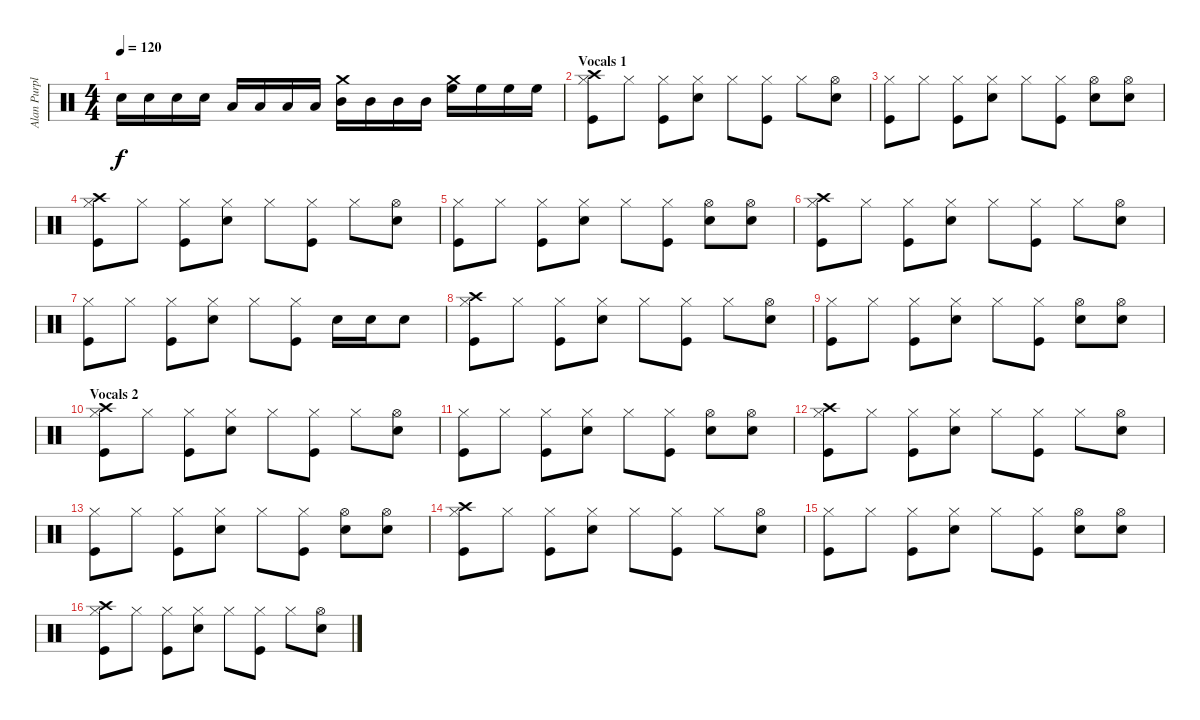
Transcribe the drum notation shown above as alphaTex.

\track ("Alan Purple" "Alan Purpl") {instrument percussion}
\staff {score}
\articulation defaults
\ts (4 4)
\tempo 120
\clef neutral
\ks c "Electric Snare (hit)".16{dy f} "Electric Snare (hit)".16 "Electric Snare (hit)".16 "Electric Snare (hit)".16 "Low Tom (hit)".16 "Low Tom (hit)".16 "Low Tom (hit)".16 "Low Tom (hit)".16
("Crash medium (hit)" "Mid Tom (hit)").16 "Mid Tom (hit)".16 "Mid Tom (hit)".16 "Mid Tom (hit)".16 ("Crash medium (hit)" "High Floor Tom (hit)").16 "High Floor Tom (hit)".16 "High Floor Tom (hit)".16 "High Floor Tom (hit)".16 |
\section ("" "Vocals 1")
("Crash high (hit)" "Hi-Hat (closed)" "Kick (hit)").8 "Hi-Hat (closed)".8 ("Hi-Hat (closed)" "Kick (hit)").8 ("Hi-Hat (closed)" "Snare (hit) 2").8 "Hi-Hat (closed)".8 ("Hi-Hat (closed)" "Kick (hit)").8 "Hi-Hat (closed)".8 ("Hi-Hat (open)" "Snare (hit) 2").8 |
("Hi-Hat (closed)" "Kick (hit)").8 "Hi-Hat (closed)".8 ("Hi-Hat (closed)" "Kick (hit)").8 ("Hi-Hat (closed)" "Snare (hit) 2").8 "Hi-Hat (closed)".8 ("Hi-Hat (closed)" "Kick (hit)").8 ("Hi-Hat (open)" "Electric Snare (hit)").8 ("Hi-Hat (open)" "Snare (hit) 2").8 |
("Crash high (hit)" "Hi-Hat (closed)" "Kick (hit)").8 "Hi-Hat (closed)".8 ("Hi-Hat (closed)" "Kick (hit)").8 ("Hi-Hat (closed)" "Snare (hit) 2").8 "Hi-Hat (closed)".8 ("Hi-Hat (closed)" "Kick (hit)").8 "Hi-Hat (closed)".8 ("Hi-Hat (open)" "Snare (hit) 2").8 |
("Hi-Hat (closed)" "Kick (hit)").8 "Hi-Hat (closed)".8 ("Hi-Hat (closed)" "Kick (hit)").8 ("Hi-Hat (closed)" "Snare (hit) 2").8 "Hi-Hat (closed)".8 ("Hi-Hat (closed)" "Kick (hit)").8 ("Hi-Hat (open)" "Electric Snare (hit)").8 ("Hi-Hat (open)" "Snare (hit) 2").8 |
("Crash high (hit)" "Hi-Hat (closed)" "Kick (hit)").8 "Hi-Hat (closed)".8 ("Hi-Hat (closed)" "Kick (hit)").8 ("Hi-Hat (closed)" "Snare (hit) 2").8 "Hi-Hat (closed)".8 ("Hi-Hat (closed)" "Kick (hit)").8 "Hi-Hat (closed)".8 ("Hi-Hat (open)" "Snare (hit) 2").8 |
("Hi-Hat (closed)" "Kick (hit)").8 "Hi-Hat (closed)".8 ("Hi-Hat (closed)" "Kick (hit)").8 ("Hi-Hat (closed)" "Snare (hit) 2").8 "Hi-Hat (closed)".8 ("Hi-Hat (closed)" "Kick (hit)").8 "Electric Snare (hit)".16 "Electric Snare (hit)".16 "Electric Snare (hit)".8 |
("Crash high (hit)" "Hi-Hat (closed)" "Kick (hit)").8 "Hi-Hat (closed)".8 ("Hi-Hat (closed)" "Kick (hit)").8 ("Hi-Hat (closed)" "Snare (hit) 2").8 "Hi-Hat (closed)".8 ("Hi-Hat (closed)" "Kick (hit)").8 "Hi-Hat (closed)".8 ("Hi-Hat (open)" "Snare (hit) 2").8 |
("Hi-Hat (closed)" "Kick (hit)").8 "Hi-Hat (closed)".8 ("Hi-Hat (closed)" "Kick (hit)").8 ("Hi-Hat (closed)" "Snare (hit) 2").8 "Hi-Hat (closed)".8 ("Hi-Hat (closed)" "Kick (hit)").8 ("Hi-Hat (open)" "Electric Snare (hit)").8 ("Hi-Hat (open)" "Snare (hit) 2").8 |
\section ("" "Vocals 2")
("Crash high (hit)" "Hi-Hat (closed)" "Kick (hit)").8 "Hi-Hat (closed)".8 ("Hi-Hat (closed)" "Kick (hit)").8 ("Hi-Hat (closed)" "Snare (hit) 2").8 "Hi-Hat (closed)".8 ("Hi-Hat (closed)" "Kick (hit)").8 "Hi-Hat (closed)".8 ("Hi-Hat (open)" "Snare (hit) 2").8 |
("Hi-Hat (closed)" "Kick (hit)").8 "Hi-Hat (closed)".8 ("Hi-Hat (closed)" "Kick (hit)").8 ("Hi-Hat (closed)" "Snare (hit) 2").8 "Hi-Hat (closed)".8 ("Hi-Hat (closed)" "Kick (hit)").8 ("Hi-Hat (open)" "Electric Snare (hit)").8 ("Hi-Hat (open)" "Snare (hit) 2").8 |
("Crash high (hit)" "Hi-Hat (closed)" "Kick (hit)").8 "Hi-Hat (closed)".8 ("Hi-Hat (closed)" "Kick (hit)").8 ("Hi-Hat (closed)" "Snare (hit) 2").8 "Hi-Hat (closed)".8 ("Hi-Hat (closed)" "Kick (hit)").8 "Hi-Hat (closed)".8 ("Hi-Hat (open)" "Snare (hit) 2").8 |
("Hi-Hat (closed)" "Kick (hit)").8 "Hi-Hat (closed)".8 ("Hi-Hat (closed)" "Kick (hit)").8 ("Hi-Hat (closed)" "Snare (hit) 2").8 "Hi-Hat (closed)".8 ("Hi-Hat (closed)" "Kick (hit)").8 ("Hi-Hat (open)" "Electric Snare (hit)").8 ("Hi-Hat (open)" "Snare (hit) 2").8 |
("Crash high (hit)" "Hi-Hat (closed)" "Kick (hit)").8 "Hi-Hat (closed)".8 ("Hi-Hat (closed)" "Kick (hit)").8 ("Hi-Hat (closed)" "Snare (hit) 2").8 "Hi-Hat (closed)".8 ("Hi-Hat (closed)" "Kick (hit)").8 "Hi-Hat (closed)".8 ("Hi-Hat (open)" "Snare (hit) 2").8 |
("Hi-Hat (closed)" "Kick (hit)").8 "Hi-Hat (closed)".8 ("Hi-Hat (closed)" "Kick (hit)").8 ("Hi-Hat (closed)" "Snare (hit) 2").8 "Hi-Hat (closed)".8 ("Hi-Hat (closed)" "Kick (hit)").8 ("Hi-Hat (open)" "Electric Snare (hit)").8 ("Hi-Hat (open)" "Snare (hit) 2").8 |
("Crash high (hit)" "Hi-Hat (closed)" "Kick (hit)").8 "Hi-Hat (closed)".8 ("Hi-Hat (closed)" "Kick (hit)").8 ("Hi-Hat (closed)" "Snare (hit) 2").8 "Hi-Hat (closed)".8 ("Hi-Hat (closed)" "Kick (hit)").8 "Hi-Hat (closed)".8 ("Hi-Hat (open)" "Snare (hit) 2").8
